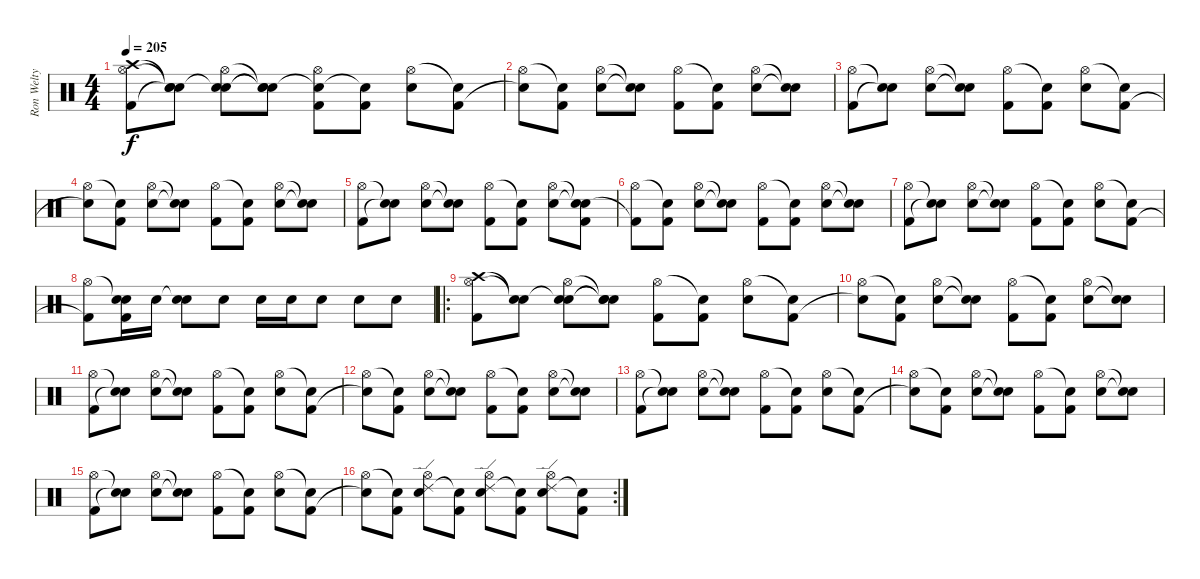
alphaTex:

\track ("Ron Welty" "Ron Welty") {instrument percussion}
\staff {score}
\articulation defaults
\ts (4 4)
\tempo 205
\clef neutral
\ks c
("Crash high (hit)" "Hi-Hat (open)" "Kick (hit) 2").8{dy f} ("Snare (hit)"{t} "Snare (hit)"{t} "Snare (hit)"{t}).8 ("Snare (hit)"{t} "Hi-Hat (open)" "Electric Snare (hit)").8 ("Snare (hit)"{t} "Snare (hit)"{t} "Snare (hit)"{t}).8 ("Snare (hit)"{t} "Hi-Hat (open)" "Kick (hit) 2").8 ("Snare (hit)"{t} "Kick (hit) 2").8 ("Hi-Hat (open)" "Electric Snare (hit)").8 ("Snare (hit)"{t} "Kick (hit) 2").8 |
("Hi-Hat (open)" "Snare (hit)"{t}).8 ("Snare (hit)"{t} "Kick (hit) 2").8 ("Hi-Hat (open)" "Electric Snare (hit)").8 ("Snare (hit)"{t} "Snare (hit)"{t}).8 ("Hi-Hat (open)" "Kick (hit) 2").8 ("Snare (hit)"{t} "Kick (hit) 2").8 ("Hi-Hat (open)" "Electric Snare (hit)").8 ("Snare (hit)"{t} "Snare (hit)"{t}).8 |
("Hi-Hat (open)" "Kick (hit) 2").8 ("Snare (hit)"{t} "Snare (hit)"{t}).8 ("Hi-Hat (open)" "Electric Snare (hit)").8 ("Snare (hit)"{t} "Snare (hit)"{t}).8 ("Hi-Hat (open)" "Kick (hit) 2").8 ("Snare (hit)"{t} "Kick (hit) 2").8 ("Hi-Hat (open)" "Electric Snare (hit)").8 ("Snare (hit)"{t} "Kick (hit) 2").8 |
("Hi-Hat (open)" "Snare (hit)"{t}).8 ("Snare (hit)"{t} "Kick (hit) 2").8 ("Hi-Hat (open)" "Electric Snare (hit)").8 ("Snare (hit)"{t} "Snare (hit)"{t}).8 ("Hi-Hat (open)" "Kick (hit) 2").8 ("Snare (hit)"{t} "Kick (hit) 2").8 ("Hi-Hat (open)" "Electric Snare (hit)").8 ("Snare (hit)"{t} "Snare (hit)"{t}).8 |
("Hi-Hat (open)" "Kick (hit) 2").8 ("Snare (hit)"{t} "Snare (hit)"{t}).8 ("Hi-Hat (open)" "Electric Snare (hit)").8 ("Snare (hit)"{t} "Snare (hit)"{t}).8 ("Hi-Hat (open)" "Kick (hit) 2").8 ("Snare (hit)"{t} "Kick (hit) 2").8 ("Hi-Hat (open)" "Electric Snare (hit)").8 ("Snare (hit)"{t} "Snare (hit)"{t} "Kick (hit) 2").8 |
("Hi-Hat (open)" "Kick (hit) 2"{t}).8 ("Snare (hit)"{t} "Kick (hit) 2").8 ("Hi-Hat (open)" "Electric Snare (hit)").8 ("Snare (hit)"{t} "Snare (hit)"{t}).8 ("Hi-Hat (open)" "Kick (hit) 2").8 ("Snare (hit)"{t} "Kick (hit) 2").8 ("Hi-Hat (open)" "Electric Snare (hit)").8 ("Snare (hit)"{t} "Snare (hit)"{t}).8 |
("Hi-Hat (open)" "Kick (hit) 2").8 ("Snare (hit)"{t} "Snare (hit)"{t}).8 ("Hi-Hat (open)" "Electric Snare (hit)").8 ("Snare (hit)"{t} "Snare (hit)"{t}).8 ("Hi-Hat (open)" "Kick (hit) 2").8 ("Snare (hit)"{t} "Kick (hit) 2").8 ("Hi-Hat (open)" "Electric Snare (hit)").8 ("Snare (hit)"{t} "Kick (hit) 2").8 |
("Hi-Hat (open)" "Kick (hit) 2"{t}).8 ("Snare (hit)"{t} "Electric Snare (hit)" "Kick (hit) 2").16 "Electric Snare (hit)".16 ("Snare (hit)"{t} "Electric Snare (hit)").8 "Electric Snare (hit)".8 "Electric Snare (hit)".16 "Electric Snare (hit)".16 "Electric Snare (hit)".8 "Electric Snare (hit)".8 "Electric Snare (hit)".8 |
\ro
("Crash high (hit)" "Hi-Hat (open)" "Kick (hit) 2").8 ("Snare (hit)"{t} "Snare (hit)"{t}).8 ("Snare (hit)"{t} "Hi-Hat (open)" "Electric Snare (hit)").8 ("Snare (hit)"{t} "Snare (hit)"{t} "Snare (hit)"{t}).8 ("Hi-Hat (open)" "Kick (hit) 2").8 ("Snare (hit)"{t} "Kick (hit) 2").8 ("Hi-Hat (open)" "Electric Snare (hit)").8 ("Snare (hit)"{t} "Kick (hit) 2").8 |
("Hi-Hat (open)" "Snare (hit)"{t}).8 ("Snare (hit)"{t} "Kick (hit) 2").8 ("Hi-Hat (open)" "Electric Snare (hit)").8 ("Snare (hit)"{t} "Snare (hit)"{t}).8 ("Hi-Hat (open)" "Kick (hit) 2").8 ("Snare (hit)"{t} "Kick (hit) 2").8 ("Hi-Hat (open)" "Electric Snare (hit)").8 ("Snare (hit)"{t} "Snare (hit)"{t}).8 |
("Hi-Hat (open)" "Kick (hit) 2").8 ("Snare (hit)"{t} "Snare (hit)"{t}).8 ("Hi-Hat (open)" "Electric Snare (hit)").8 ("Snare (hit)"{t} "Snare (hit)"{t}).8 ("Hi-Hat (open)" "Kick (hit) 2").8 ("Snare (hit)"{t} "Kick (hit) 2").8 ("Hi-Hat (open)" "Electric Snare (hit)").8 ("Snare (hit)"{t} "Kick (hit) 2").8 |
("Hi-Hat (open)" "Snare (hit)"{t}).8 ("Snare (hit)"{t} "Kick (hit) 2").8 ("Hi-Hat (open)" "Electric Snare (hit)").8 ("Snare (hit)"{t} "Snare (hit)"{t}).8 ("Hi-Hat (open)" "Kick (hit) 2").8 ("Snare (hit)"{t} "Kick (hit) 2").8 ("Hi-Hat (open)" "Electric Snare (hit)").8 ("Snare (hit)"{t} "Snare (hit)"{t}).8 |
("Hi-Hat (open)" "Kick (hit) 2").8 ("Snare (hit)"{t} "Snare (hit)"{t}).8 ("Hi-Hat (open)" "Electric Snare (hit)").8 ("Snare (hit)"{t} "Snare (hit)"{t}).8 ("Hi-Hat (open)" "Kick (hit) 2").8 ("Snare (hit)"{t} "Kick (hit) 2").8 ("Hi-Hat (open)" "Electric Snare (hit)").8 ("Snare (hit)"{t} "Kick (hit) 2").8 |
("Hi-Hat (open)" "Snare (hit)"{t}).8 ("Snare (hit)"{t} "Kick (hit) 2").8 ("Hi-Hat (open)" "Electric Snare (hit)").8 ("Snare (hit)"{t} "Snare (hit)"{t}).8 ("Hi-Hat (open)" "Kick (hit) 2").8 ("Snare (hit)"{t} "Kick (hit) 2").8 ("Hi-Hat (open)" "Electric Snare (hit)").8 ("Snare (hit)"{t} "Snare (hit)"{t}).8 |
("Hi-Hat (open)" "Kick (hit) 2").8 ("Snare (hit)"{t} "Snare (hit)"{t}).8 ("Hi-Hat (open)" "Electric Snare (hit)").8 ("Snare (hit)"{t} "Snare (hit)"{t}).8 ("Hi-Hat (open)" "Kick (hit) 2").8 ("Snare (hit)"{t} "Kick (hit) 2").8 ("Hi-Hat (open)" "Electric Snare (hit)").8 ("Snare (hit)"{t} "Kick (hit) 2").8 |
\rc 2
("Hi-Hat (open)" "Snare (hit)"{t}).8 ("Snare (hit)"{t} "Kick (hit) 2").8 ("Ride (edge) 2" "Hi-Hat (open)" "Electric Snare (hit)").8 ("Snare (hit)"{t} "Kick (hit) 2").8 ("Ride (edge) 2" "Hi-Hat (open)" "Electric Snare (hit)").8 ("Snare (hit)"{t} "Kick (hit) 2").8 ("Ride (edge) 2" "Hi-Hat (open)" "Electric Snare (hit)").8 ("Snare (hit)"{t} "Kick (hit) 2").8
